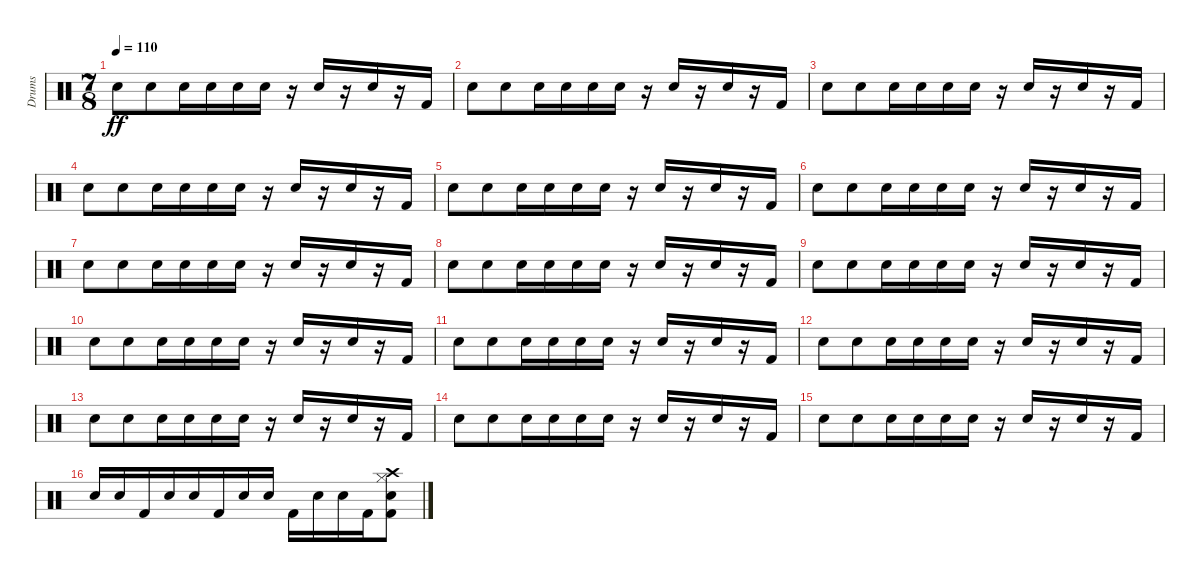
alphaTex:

\track ("Drums" "Drums") {instrument percussion}
\staff {score}
\articulation defaults
\ts (7 8)
\tempo 110
\clef neutral
\ks c "Snare (hit) 2".8{dy ff} "Snare (hit) 2".8 "Snare (hit) 2".16 "Snare (hit) 2".16 "Snare (hit) 2".16 "Snare (hit) 2".16
r.16 "Snare (hit) 2".16 r.16 "Snare (hit) 2".16 r.16 "Kick (hit) 2".16 |
"Snare (hit) 2".8 "Snare (hit) 2".8 "Snare (hit) 2".16 "Snare (hit) 2".16 "Snare (hit) 2".16 "Snare (hit) 2".16 r.16 "Snare (hit) 2".16 r.16 "Snare (hit) 2".16 r.16 "Kick (hit) 2".16 |
"Snare (hit) 2".8 "Snare (hit) 2".8 "Snare (hit) 2".16 "Snare (hit) 2".16 "Snare (hit) 2".16 "Snare (hit) 2".16 r.16 "Snare (hit) 2".16 r.16 "Snare (hit) 2".16 r.16 "Kick (hit) 2".16 |
"Snare (hit) 2".8 "Snare (hit) 2".8 "Snare (hit) 2".16 "Snare (hit) 2".16 "Snare (hit) 2".16 "Snare (hit) 2".16 r.16 "Snare (hit) 2".16 r.16 "Snare (hit) 2".16 r.16 "Kick (hit) 2".16 |
"Snare (hit) 2".8 "Snare (hit) 2".8 "Snare (hit) 2".16 "Snare (hit) 2".16 "Snare (hit) 2".16 "Snare (hit) 2".16 r.16 "Snare (hit) 2".16 r.16 "Snare (hit) 2".16 r.16 "Kick (hit) 2".16 |
"Snare (hit) 2".8 "Snare (hit) 2".8 "Snare (hit) 2".16 "Snare (hit) 2".16 "Snare (hit) 2".16 "Snare (hit) 2".16 r.16 "Snare (hit) 2".16 r.16 "Snare (hit) 2".16 r.16 "Kick (hit) 2".16 |
"Snare (hit) 2".8 "Snare (hit) 2".8 "Snare (hit) 2".16 "Snare (hit) 2".16 "Snare (hit) 2".16 "Snare (hit) 2".16 r.16 "Snare (hit) 2".16 r.16 "Snare (hit) 2".16 r.16 "Kick (hit) 2".16 |
"Snare (hit) 2".8 "Snare (hit) 2".8 "Snare (hit) 2".16 "Snare (hit) 2".16 "Snare (hit) 2".16 "Snare (hit) 2".16 r.16 "Snare (hit) 2".16 r.16 "Snare (hit) 2".16 r.16 "Kick (hit) 2".16 |
"Snare (hit) 2".8 "Snare (hit) 2".8 "Snare (hit) 2".16 "Snare (hit) 2".16 "Snare (hit) 2".16 "Snare (hit) 2".16 r.16 "Snare (hit) 2".16 r.16 "Snare (hit) 2".16 r.16 "Kick (hit) 2".16 |
"Snare (hit) 2".8 "Snare (hit) 2".8 "Snare (hit) 2".16 "Snare (hit) 2".16 "Snare (hit) 2".16 "Snare (hit) 2".16 r.16 "Snare (hit) 2".16 r.16 "Snare (hit) 2".16 r.16 "Kick (hit) 2".16 |
"Snare (hit) 2".8 "Snare (hit) 2".8 "Snare (hit) 2".16 "Snare (hit) 2".16 "Snare (hit) 2".16 "Snare (hit) 2".16 r.16 "Snare (hit) 2".16 r.16 "Snare (hit) 2".16 r.16 "Kick (hit) 2".16 |
"Snare (hit) 2".8 "Snare (hit) 2".8 "Snare (hit) 2".16 "Snare (hit) 2".16 "Snare (hit) 2".16 "Snare (hit) 2".16 r.16 "Snare (hit) 2".16 r.16 "Snare (hit) 2".16 r.16 "Kick (hit) 2".16 |
"Snare (hit) 2".8 "Snare (hit) 2".8 "Snare (hit) 2".16 "Snare (hit) 2".16 "Snare (hit) 2".16 "Snare (hit) 2".16 r.16 "Snare (hit) 2".16 r.16 "Snare (hit) 2".16 r.16 "Kick (hit) 2".16 |
"Snare (hit) 2".8 "Snare (hit) 2".8 "Snare (hit) 2".16 "Snare (hit) 2".16 "Snare (hit) 2".16 "Snare (hit) 2".16 r.16 "Snare (hit) 2".16 r.16 "Snare (hit) 2".16 r.16 "Kick (hit) 2".16 |
"Snare (hit) 2".8 "Snare (hit) 2".8 "Snare (hit) 2".16 "Snare (hit) 2".16 "Snare (hit) 2".16 "Snare (hit) 2".16 r.16 "Snare (hit) 2".16 r.16 "Snare (hit) 2".16 r.16 "Kick (hit) 2".16 |
"Snare (hit) 2".16 "Snare (hit) 2".16 "Kick (hit) 2".16 "Snare (hit) 2".16 "Snare (hit) 2".16 "Kick (hit) 2".16 "Snare (hit) 2".16 "Snare (hit) 2".16 "Kick (hit) 2".16 "Snare (hit) 2".16 "Snare (hit) 2".16 "Kick (hit) 2".16 ("Kick (hit) 2" "Snare (hit) 2" "Hi-Hat (closed)" "Crash high (hit)").8
